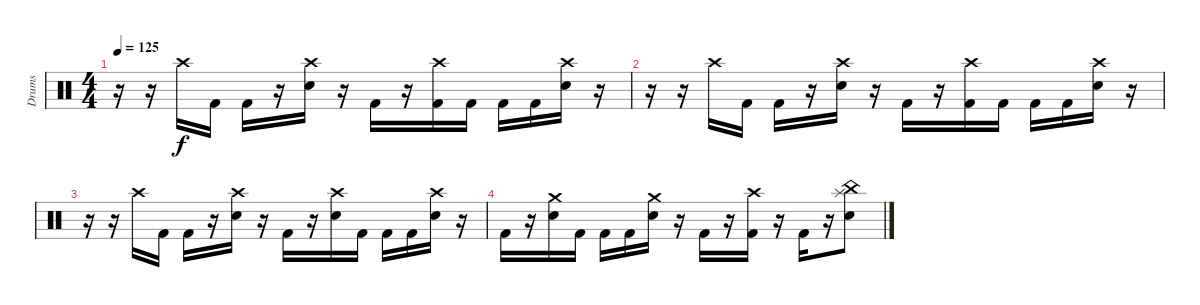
\track ("Drums" "Drums") {instrument percussion}
\staff {score}
\articulation defaults
\ts (4 4)
\tempo 125
\clef neutral
\ks c
r.16{dy f} r.16 "Crash high (hit)".16 "Kick (hit) 2".16 "Kick (hit) 2".16 r.16 ("Crash high (hit)" "Snare (hit) 2").16 r.16 "Kick (hit) 2".16 r.16 ("Crash high (hit)" "Kick (hit) 2").16 "Kick (hit) 2".16 "Kick (hit) 2".16 "Kick (hit) 2".16 ("Crash high (hit)" "Snare (hit) 2").16 r.16 |
r.16 r.16 "Crash high (hit)".16 "Kick (hit) 2".16 "Kick (hit) 2".16 r.16 ("Crash high (hit)" "Snare (hit) 2").16 r.16 "Kick (hit) 2".16 r.16 ("Crash high (hit)" "Kick (hit) 2").16 "Kick (hit) 2".16 "Kick (hit) 2".16 "Kick (hit) 2".16 ("Crash high (hit)" "Snare (hit) 2").16 r.16 |
r.16 r.16 "Crash high (hit)".16 "Kick (hit) 2".16 "Kick (hit) 2".16 r.16 ("Crash high (hit)" "Snare (hit) 2").16 r.16 "Kick (hit) 2".16 r.16 ("Crash high (hit)" "Snare (hit) 2").16 "Kick (hit) 2".16 "Kick (hit) 2".16 "Kick (hit) 2".16 ("Crash high (hit)" "Snare (hit) 2").16 r.16 |
"Kick (hit) 2".16 r.16 ("Crash medium (hit)" "Snare (hit) 2").16 "Kick (hit) 2".16 "Kick (hit) 2".16 "Kick (hit) 2".16 ("Crash medium (hit)" "Snare (hit) 2").16 r.16 "Kick (hit) 2".16 r.16 ("Crash high (hit)" "Kick (hit) 2").16 r.16 "Kick (hit) 2".16 r.16 ("China (hit)" "Splash (hit)" "Snare (hit) 2").8
